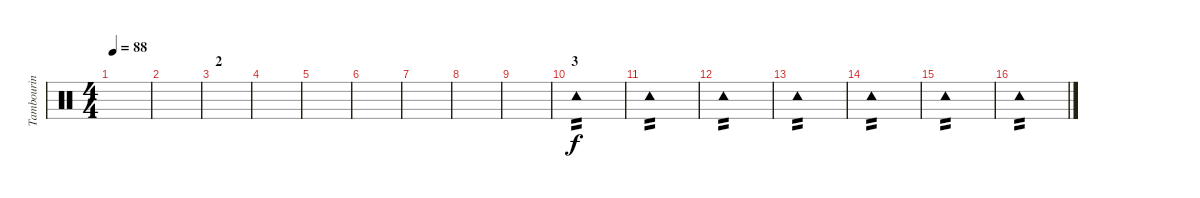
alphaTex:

\track ("Tambourin" "Tambourin") {instrument percussion}
\staff {score}
\articulation defaults
\ts (4 4)
\tempo 88
\clef neutral
\ks c
|
|
\section ("" "2")
|
|
|
|
|
|
|
\section ("" "3")
"Tambourine (hit)".1{tp 2} |
"Tambourine (hit)".1{tp 2} |
"Tambourine (hit)".1{tp 2} |
"Tambourine (hit)".1{tp 2} |
"Tambourine (hit)".1{tp 2} |
"Tambourine (hit)".1{tp 2} |
"Tambourine (hit)".1{tp 2}
